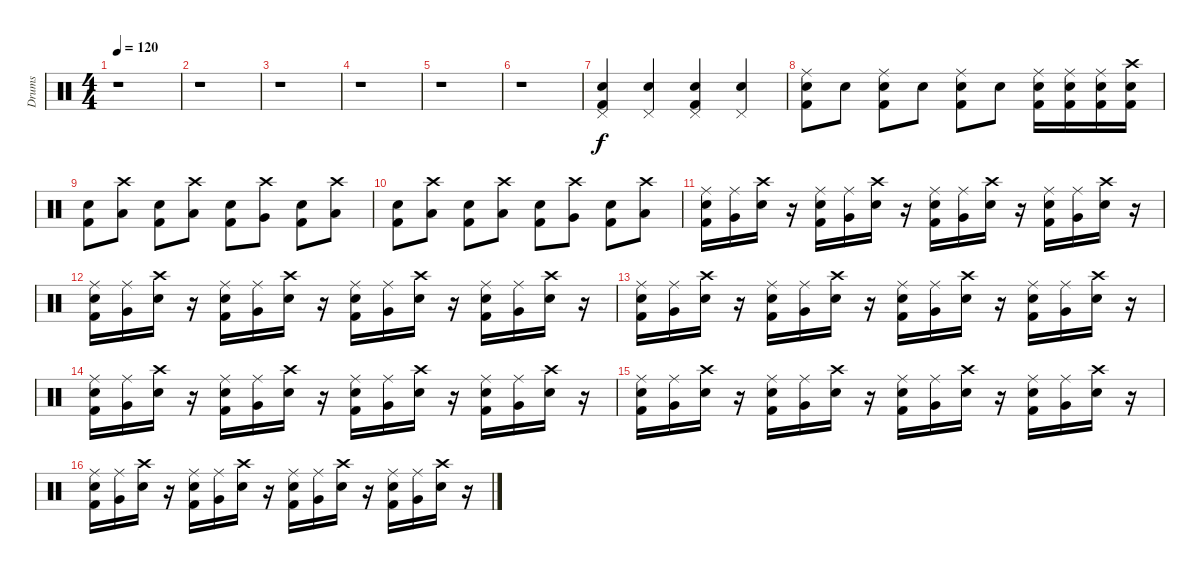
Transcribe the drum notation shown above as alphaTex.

\track ("Drums" "Drums") {instrument percussion}
\staff {score}
\articulation defaults
\ts (4 4)
\tempo 120
\clef neutral
\ks c
r.1{dy f} |
r.1 |
r.1 |
r.1 |
r.1 |
r.1 |
("Pedal Hi-Hat (hit)" "Snare (hit) 2" "Kick (hit) 2").4 ("Pedal Hi-Hat (hit)" "Snare (hit) 2").4 ("Pedal Hi-Hat (hit)" "Snare (hit) 2" "Kick (hit) 2").4 ("Pedal Hi-Hat (hit)" "Snare (hit) 2").4 |
("Ride (middle)" "Snare (hit) 2" "Kick (hit) 2").8 "Snare (hit) 2".8 ("Ride (middle)" "Snare (hit) 2" "Kick (hit) 2").8 "Snare (hit) 2".8 ("Ride (middle)" "Snare (hit) 2" "Kick (hit) 2").8 "Snare (hit) 2".8 ("Ride (middle)" "Snare (hit) 2" "Kick (hit) 2").16 ("Ride (middle)" "Snare (hit) 2" "Kick (hit) 2").16 ("Ride (middle)" "Snare (hit) 2" "Kick (hit) 2").16 ("Crash high (hit)" "Snare (hit) 2" "Kick (hit) 2").16 |
("Snare (hit) 2" "Kick (hit) 2").8 ("Crash high (hit)" "Low Tom (hit)").8 ("Snare (hit) 2" "Kick (hit) 2").8 ("Crash high (hit)" "Low Floor Tom (hit)").8 ("Snare (hit) 2" "Kick (hit) 2").8 ("Crash high (hit)" "Very Low Tom (hit)").8 ("Snare (hit) 2" "Kick (hit) 2").8 ("Crash high (hit)" "Low Tom (hit)").8 |
("Snare (hit) 2" "Kick (hit) 2").8 ("Crash high (hit)" "Low Tom (hit)").8 ("Snare (hit) 2" "Kick (hit) 2").8 ("Crash high (hit)" "Low Floor Tom (hit)").8 ("Snare (hit) 2" "Kick (hit) 2").8 ("Crash high (hit)" "Very Low Tom (hit)").8 ("Snare (hit) 2" "Kick (hit) 2").8 ("Crash high (hit)" "Low Tom (hit)").8 |
("Ride (middle)" "Snare (hit) 2" "Kick (hit) 2").16 ("Ride (middle)" "Very Low Tom (hit)").16 ("Crash high (hit)" "Snare (hit) 2").16 r.16 ("Ride (middle)" "Snare (hit) 2" "Kick (hit) 2").16 ("Ride (middle)" "Very Low Tom (hit)").16 ("Crash high (hit)" "Snare (hit) 2").16 r.16 ("Ride (middle)" "Snare (hit) 2" "Kick (hit) 2").16 ("Ride (middle)" "Very Low Tom (hit)").16 ("Crash high (hit)" "Snare (hit) 2").16 r.16 ("Ride (middle)" "Snare (hit) 2" "Kick (hit) 2").16 ("Ride (middle)" "Very Low Tom (hit)").16 ("Crash high (hit)" "Snare (hit) 2").16 r.16 |
("Ride (middle)" "Snare (hit) 2" "Kick (hit) 2").16 ("Ride (middle)" "Very Low Tom (hit)").16 ("Crash high (hit)" "Snare (hit) 2").16 r.16 ("Ride (middle)" "Snare (hit) 2" "Kick (hit) 2").16 ("Ride (middle)" "Very Low Tom (hit)").16 ("Crash high (hit)" "Snare (hit) 2").16 r.16 ("Ride (middle)" "Snare (hit) 2" "Kick (hit) 2").16 ("Ride (middle)" "Very Low Tom (hit)").16 ("Crash high (hit)" "Snare (hit) 2").16 r.16 ("Ride (middle)" "Snare (hit) 2" "Kick (hit) 2").16 ("Ride (middle)" "Very Low Tom (hit)").16 ("Crash high (hit)" "Snare (hit) 2").16 r.16 |
("Ride (middle)" "Snare (hit) 2" "Kick (hit) 2").16 ("Ride (middle)" "Very Low Tom (hit)").16 ("Crash high (hit)" "Snare (hit) 2").16 r.16 ("Ride (middle)" "Snare (hit) 2" "Kick (hit) 2").16 ("Ride (middle)" "Very Low Tom (hit)").16 ("Crash high (hit)" "Snare (hit) 2").16 r.16 ("Ride (middle)" "Snare (hit) 2" "Kick (hit) 2").16 ("Ride (middle)" "Very Low Tom (hit)").16 ("Crash high (hit)" "Snare (hit) 2").16 r.16 ("Ride (middle)" "Snare (hit) 2" "Kick (hit) 2").16 ("Ride (middle)" "Very Low Tom (hit)").16 ("Crash high (hit)" "Snare (hit) 2").16 r.16 |
("Ride (middle)" "Snare (hit) 2" "Kick (hit) 2").16 ("Ride (middle)" "Very Low Tom (hit)").16 ("Crash high (hit)" "Snare (hit) 2").16 r.16 ("Ride (middle)" "Snare (hit) 2" "Kick (hit) 2").16 ("Ride (middle)" "Very Low Tom (hit)").16 ("Crash high (hit)" "Snare (hit) 2").16 r.16 ("Ride (middle)" "Snare (hit) 2" "Kick (hit) 2").16 ("Ride (middle)" "Very Low Tom (hit)").16 ("Crash high (hit)" "Snare (hit) 2").16 r.16 ("Ride (middle)" "Snare (hit) 2" "Kick (hit) 2").16 ("Ride (middle)" "Very Low Tom (hit)").16 ("Crash high (hit)" "Snare (hit) 2").16 r.16 |
("Ride (middle)" "Snare (hit) 2" "Kick (hit) 2").16 ("Ride (middle)" "Very Low Tom (hit)").16 ("Crash high (hit)" "Snare (hit) 2").16 r.16 ("Ride (middle)" "Snare (hit) 2" "Kick (hit) 2").16 ("Ride (middle)" "Very Low Tom (hit)").16 ("Crash high (hit)" "Snare (hit) 2").16 r.16 ("Ride (middle)" "Snare (hit) 2" "Kick (hit) 2").16 ("Ride (middle)" "Very Low Tom (hit)").16 ("Crash high (hit)" "Snare (hit) 2").16 r.16 ("Ride (middle)" "Snare (hit) 2" "Kick (hit) 2").16 ("Ride (middle)" "Very Low Tom (hit)").16 ("Crash high (hit)" "Snare (hit) 2").16 r.16 |
("Ride (middle)" "Snare (hit) 2" "Kick (hit) 2").16 ("Ride (middle)" "Very Low Tom (hit)").16 ("Crash high (hit)" "Snare (hit) 2").16 r.16 ("Ride (middle)" "Snare (hit) 2" "Kick (hit) 2").16 ("Ride (middle)" "Very Low Tom (hit)").16 ("Crash high (hit)" "Snare (hit) 2").16 r.16 ("Ride (middle)" "Snare (hit) 2" "Kick (hit) 2").16 ("Ride (middle)" "Very Low Tom (hit)").16 ("Crash high (hit)" "Snare (hit) 2").16 r.16 ("Ride (middle)" "Snare (hit) 2" "Kick (hit) 2").16 ("Ride (middle)" "Very Low Tom (hit)").16 ("Crash high (hit)" "Snare (hit) 2").16 r.16
